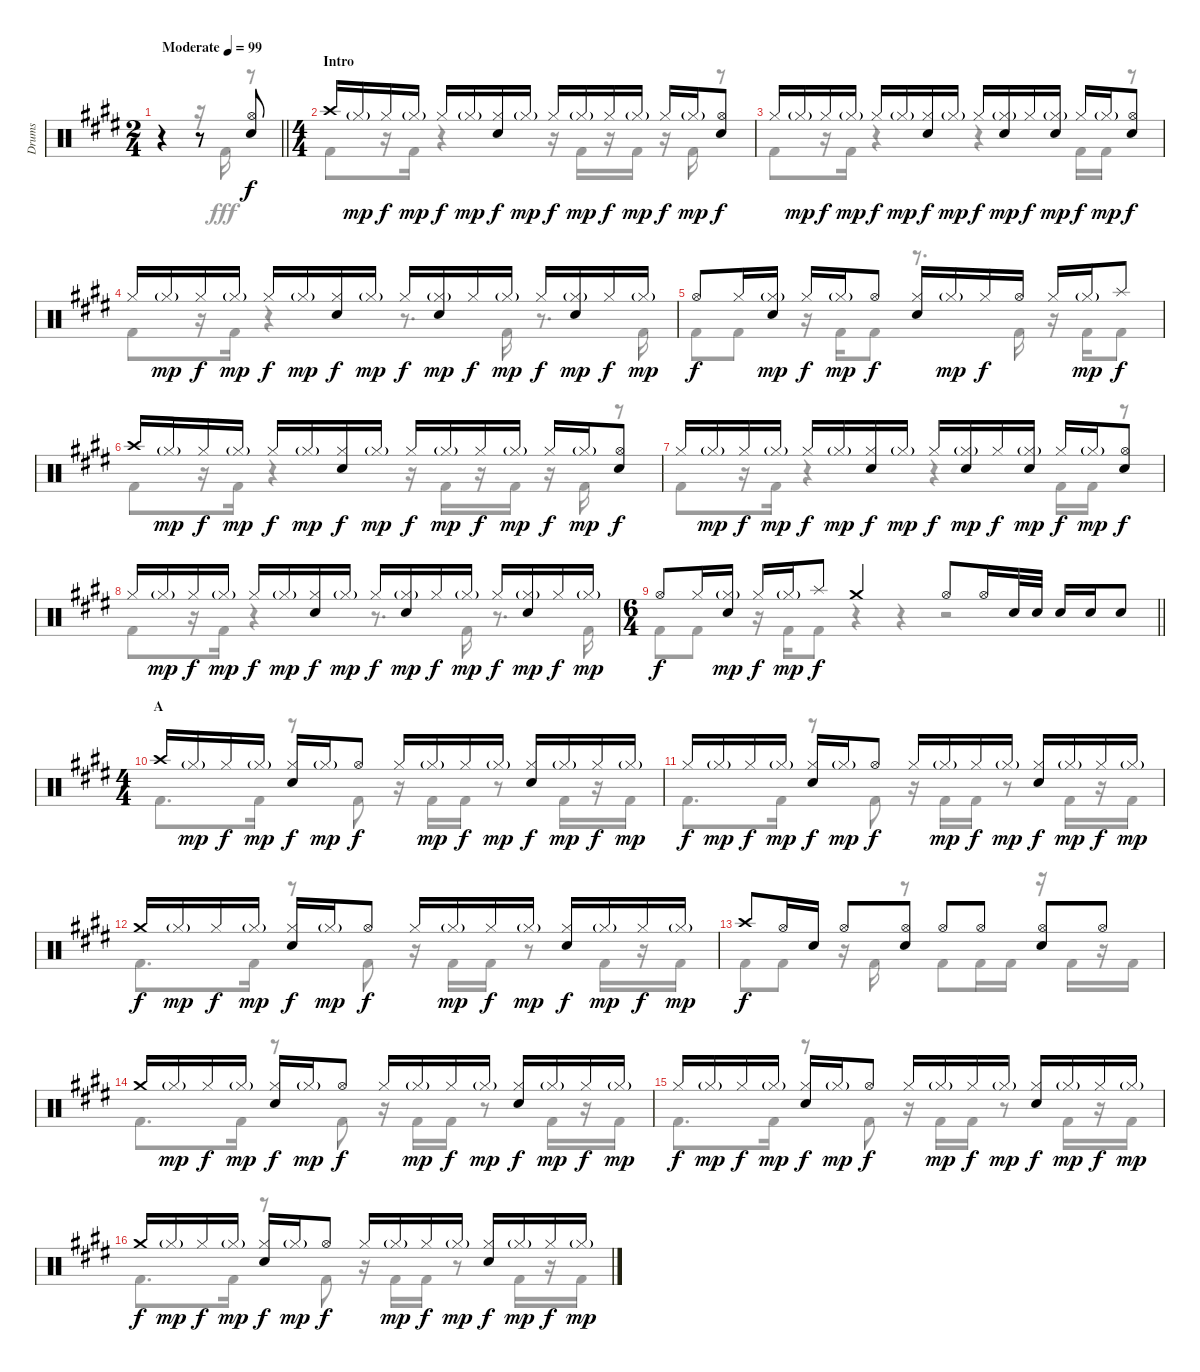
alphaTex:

\track ("Drums" "Drums") {instrument percussion}
\staff {score}
\articulation defaults
\voice
\ts (2 4)
\tempo (99 "Moderate")
\clef neutral
\barLineRight lightlight
\ks e
r.4{dy f} r.8 ("Hi-Hat (open)" "Snare (hit) 2").8 |
\ts (4 4)
\section ("" "Intro")
"Crash high (hit)".16 "Hi-Hat (closed)"{g}.16{dy mp} "Hi-Hat (closed)".16{dy f} "Hi-Hat (closed)"{g}.16{dy mp} "Hi-Hat (closed)".16{dy f} "Hi-Hat (closed)"{g}.16{dy mp} ("Hi-Hat (closed)" "Snare (hit) 2").16{dy f} "Hi-Hat (closed)"{g}.16{dy mp} "Hi-Hat (closed)".16{dy f} "Hi-Hat (closed)"{g}.16{dy mp} "Hi-Hat (closed)".16{dy f} "Hi-Hat (closed)"{g}.16{dy mp} "Hi-Hat (closed)".16{dy f} "Hi-Hat (closed)"{g}.16{dy mp} ("Hi-Hat (open)" "Snare (hit) 2").8{dy f} |
"Hi-Hat (closed)".16 "Hi-Hat (closed)"{g}.16{dy mp} "Hi-Hat (closed)".16{dy f} "Hi-Hat (closed)"{g}.16{dy mp} "Hi-Hat (closed)".16{dy f} "Hi-Hat (closed)"{g}.16{dy mp} ("Hi-Hat (closed)" "Snare (hit) 2").16{dy f} "Hi-Hat (closed)"{g}.16{dy mp} "Hi-Hat (closed)".16{dy f} ("Hi-Hat (closed)"{g} "Snare (hit) 2").16{dy mp} "Hi-Hat (closed)".16{dy f} ("Hi-Hat (closed)"{g} "Snare (hit) 2").16{dy mp} "Hi-Hat (closed)".16{dy f} "Hi-Hat (closed)"{g}.16{dy mp} ("Hi-Hat (open)" "Snare (hit) 2").8{dy f} |
"Hi-Hat (closed)".16 "Hi-Hat (closed)"{g}.16{dy mp} "Hi-Hat (closed)".16{dy f} "Hi-Hat (closed)"{g}.16{dy mp} "Hi-Hat (closed)".16{dy f} "Hi-Hat (closed)"{g}.16{dy mp} ("Hi-Hat (closed)" "Snare (hit) 2").16{dy f} "Hi-Hat (closed)"{g}.16{dy mp} "Hi-Hat (closed)".16{dy f} ("Hi-Hat (closed)"{g} "Snare (hit) 2").16{dy mp} "Hi-Hat (closed)".16{dy f} "Hi-Hat (closed)"{g}.16{dy mp} "Hi-Hat (closed)".16{dy f} ("Hi-Hat (closed)"{g} "Snare (hit) 2").16{dy mp} "Hi-Hat (closed)".16{dy f} "Hi-Hat (closed)"{g}.16{dy mp} |
"Hi-Hat (open)".8{dy f} "Hi-Hat (closed)".16 ("Hi-Hat (closed)"{g} "Snare (hit) 2").16{dy mp} "Hi-Hat (closed)".16{dy f} "Hi-Hat (closed)"{g}.16{dy mp} "Hi-Hat (open)".8{dy f} ("Hi-Hat (closed)" "Snare (hit) 2").16 "Hi-Hat (closed)"{g}.16{dy mp} "Hi-Hat (closed)".16{dy f} "Hi-Hat (open)".16 "Hi-Hat (closed)".16 "Hi-Hat (closed)"{g}.16{dy mp} "Splash (hit)".8{dy f} |
"Crash high (hit)".16 "Hi-Hat (closed)"{g}.16{dy mp} "Hi-Hat (closed)".16{dy f} "Hi-Hat (closed)"{g}.16{dy mp} "Hi-Hat (closed)".16{dy f} "Hi-Hat (closed)"{g}.16{dy mp} ("Hi-Hat (closed)" "Snare (hit) 2").16{dy f} "Hi-Hat (closed)"{g}.16{dy mp} "Hi-Hat (closed)".16{dy f} "Hi-Hat (closed)"{g}.16{dy mp} "Hi-Hat (closed)".16{dy f} "Hi-Hat (closed)"{g}.16{dy mp} "Hi-Hat (closed)".16{dy f} "Hi-Hat (closed)"{g}.16{dy mp} ("Hi-Hat (open)" "Snare (hit) 2").8{dy f} |
"Hi-Hat (closed)".16 "Hi-Hat (closed)"{g}.16{dy mp} "Hi-Hat (closed)".16{dy f} "Hi-Hat (closed)"{g}.16{dy mp} "Hi-Hat (closed)".16{dy f} "Hi-Hat (closed)"{g}.16{dy mp} ("Hi-Hat (closed)" "Snare (hit) 2").16{dy f} "Hi-Hat (closed)"{g}.16{dy mp} "Hi-Hat (closed)".16{dy f} ("Hi-Hat (closed)"{g} "Snare (hit) 2").16{dy mp} "Hi-Hat (closed)".16{dy f} ("Hi-Hat (closed)"{g} "Snare (hit) 2").16{dy mp} "Hi-Hat (closed)".16{dy f} "Hi-Hat (closed)"{g}.16{dy mp} ("Hi-Hat (open)" "Snare (hit) 2").8{dy f} |
"Hi-Hat (closed)".16 "Hi-Hat (closed)"{g}.16{dy mp} "Hi-Hat (closed)".16{dy f} "Hi-Hat (closed)"{g}.16{dy mp} "Hi-Hat (closed)".16{dy f} "Hi-Hat (closed)"{g}.16{dy mp} ("Hi-Hat (closed)" "Snare (hit) 2").16{dy f} "Hi-Hat (closed)"{g}.16{dy mp} "Hi-Hat (closed)".16{dy f} ("Hi-Hat (closed)"{g} "Snare (hit) 2").16{dy mp} "Hi-Hat (closed)".16{dy f} "Hi-Hat (closed)"{g}.16{dy mp} "Hi-Hat (closed)".16{dy f} ("Hi-Hat (closed)"{g} "Snare (hit) 2").16{dy mp} "Hi-Hat (closed)".16{dy f} "Hi-Hat (closed)"{g}.16{dy mp} |
\ts (6 4)
\barLineRight lightlight "Hi-Hat (open)".8{dy f} "Hi-Hat (closed)".16
("Hi-Hat (closed)"{g} "Snare (hit) 2").16{dy mp} "Hi-Hat (closed)".16{dy f} "Hi-Hat (closed)"{g}.16{dy mp} "Splash (hit)".8{dy f} "Crash medium (hit)".2 "Hi-Hat (open)".8 "Hi-Hat (open)".16 "Snare (hit) 2".32 "Snare (hit) 2".32 "Snare (hit) 2".16 "Snare (hit) 2".16 "Snare (hit) 2".8 |
\ts (4 4)
\section ("" "A")
"Crash high (hit)".16 "Hi-Hat (closed)"{g}.16{dy mp} "Hi-Hat (closed)".16{dy f} "Hi-Hat (closed)"{g}.16{dy mp} ("Hi-Hat (closed)" "Snare (hit) 2").16{dy f} "Hi-Hat (closed)"{g}.16{dy mp} "Hi-Hat (open)".8{dy f} "Hi-Hat (closed)".16 "Hi-Hat (closed)"{g}.16{dy mp} "Hi-Hat (closed)".16{dy f} "Hi-Hat (closed)"{g}.16{dy mp} ("Hi-Hat (closed)" "Snare (hit) 2").16{dy f} "Hi-Hat (closed)"{g}.16{dy mp} "Hi-Hat (closed)".16{dy f} "Hi-Hat (closed)"{g}.16{dy mp} |
"Hi-Hat (closed)".16{dy f} "Hi-Hat (closed)"{g}.16{dy mp} "Hi-Hat (closed)".16{dy f} "Hi-Hat (closed)"{g}.16{dy mp} ("Hi-Hat (closed)" "Snare (hit) 2").16{dy f} "Hi-Hat (closed)"{g}.16{dy mp} "Hi-Hat (open)".8{dy f} "Hi-Hat (closed)".16 "Hi-Hat (closed)"{g}.16{dy mp} "Hi-Hat (closed)".16{dy f} "Hi-Hat (closed)"{g}.16{dy mp} ("Hi-Hat (closed)" "Snare (hit) 2").16{dy f} "Hi-Hat (closed)"{g}.16{dy mp} "Hi-Hat (closed)".16{dy f} "Hi-Hat (closed)"{g}.16{dy mp} |
"Crash medium (hit)".16{dy f} "Hi-Hat (closed)"{g}.16{dy mp} "Hi-Hat (closed)".16{dy f} "Hi-Hat (closed)"{g}.16{dy mp} ("Hi-Hat (closed)" "Snare (hit) 2").16{dy f} "Hi-Hat (closed)"{g}.16{dy mp} "Hi-Hat (open)".8{dy f} "Hi-Hat (closed)".16 "Hi-Hat (closed)"{g}.16{dy mp} "Hi-Hat (closed)".16{dy f} "Hi-Hat (closed)"{g}.16{dy mp} ("Hi-Hat (closed)" "Snare (hit) 2").16{dy f} "Hi-Hat (closed)"{g}.16{dy mp} "Hi-Hat (closed)".16{dy f} "Hi-Hat (closed)"{g}.16{dy mp} |
"Crash high (hit)".8{dy f} "Hi-Hat (open)".16 "Snare (hit) 2".16 "Hi-Hat (open)".8 ("Hi-Hat (open)" "Snare (hit) 2").8 "Hi-Hat (open)".8 "Hi-Hat (open)".8 ("Hi-Hat (open)" "Snare (hit) 2").8 "Hi-Hat (open)".8 |
"Crash medium (hit)".16 "Hi-Hat (closed)"{g}.16{dy mp} "Hi-Hat (closed)".16{dy f} "Hi-Hat (closed)"{g}.16{dy mp} ("Hi-Hat (closed)" "Snare (hit) 2").16{dy f} "Hi-Hat (closed)"{g}.16{dy mp} "Hi-Hat (open)".8{dy f} "Hi-Hat (closed)".16 "Hi-Hat (closed)"{g}.16{dy mp} "Hi-Hat (closed)".16{dy f} "Hi-Hat (closed)"{g}.16{dy mp} ("Hi-Hat (closed)" "Snare (hit) 2").16{dy f} "Hi-Hat (closed)"{g}.16{dy mp} "Hi-Hat (closed)".16{dy f} "Hi-Hat (closed)"{g}.16{dy mp} |
"Hi-Hat (closed)".16{dy f} "Hi-Hat (closed)"{g}.16{dy mp} "Hi-Hat (closed)".16{dy f} "Hi-Hat (closed)"{g}.16{dy mp} ("Hi-Hat (closed)" "Snare (hit) 2").16{dy f} "Hi-Hat (closed)"{g}.16{dy mp} "Hi-Hat (open)".8{dy f} "Hi-Hat (closed)".16 "Hi-Hat (closed)"{g}.16{dy mp} "Hi-Hat (closed)".16{dy f} "Hi-Hat (closed)"{g}.16{dy mp} ("Hi-Hat (closed)" "Snare (hit) 2").16{dy f} "Hi-Hat (closed)"{g}.16{dy mp} "Hi-Hat (closed)".16{dy f} "Hi-Hat (closed)"{g}.16{dy mp} |
"Crash medium (hit)".16{dy f} "Hi-Hat (closed)"{g}.16{dy mp} "Hi-Hat (closed)".16{dy f} "Hi-Hat (closed)"{g}.16{dy mp} ("Hi-Hat (closed)" "Snare (hit) 2").16{dy f} "Hi-Hat (closed)"{g}.16{dy mp} "Hi-Hat (open)".8{dy f} "Hi-Hat (closed)".16 "Hi-Hat (closed)"{g}.16{dy mp} "Hi-Hat (closed)".16{dy f} "Hi-Hat (closed)"{g}.16{dy mp} ("Hi-Hat (closed)" "Snare (hit) 2").16{dy f} "Hi-Hat (closed)"{g}.16{dy mp} "Hi-Hat (closed)".16{dy f} "Hi-Hat (closed)"{g}.16{dy mp}
\voice
\clef neutral
\ottava regular
\simile none
\barLineRight lightlight
\ks e
r.4{dy fff} r.16 "Kick (hit) 2".16 r.8 |
"Kick (hit) 2".8 r.16 "Kick (hit) 2".16 r.4 r.16 "Kick (hit) 2".16 r.16 "Kick (hit) 2".16 r.16 "Kick (hit) 2".16 r.8 |
"Kick (hit) 2".8 r.16 "Kick (hit) 2".16 r.4 r.4 "Kick (hit) 2".16 "Kick (hit) 2".16 r.8 |
"Kick (hit) 2".8 r.16 "Kick (hit) 2".16 r.4 r.8{d} "Kick (hit) 2".16 r.8{d} "Kick (hit) 2".16 |
"Kick (hit) 2".8 "Kick (hit) 2".8 r.16 "Kick (hit) 2".16 "Kick (hit) 2".8 r.8{d} "Kick (hit) 2".16 r.16 "Kick (hit) 2".16 "Kick (hit) 2".8 |
"Kick (hit) 2".8 r.16 "Kick (hit) 2".16 r.4 r.16 "Kick (hit) 2".16 r.16 "Kick (hit) 2".16 r.16 "Kick (hit) 2".16 r.8 |
"Kick (hit) 2".8 r.16 "Kick (hit) 2".16 r.4 r.4 "Kick (hit) 2".16 "Kick (hit) 2".16 r.8 |
"Kick (hit) 2".8 r.16 "Kick (hit) 2".16 r.4 r.8{d} "Kick (hit) 2".16 r.8{d} "Kick (hit) 2".16 |
\barLineRight lightlight "Kick (hit) 2".8 "Kick (hit) 2".8
r.16 "Kick (hit) 2".16 "Kick (hit) 2".8 r.4 r.4 r.2 |
"Kick (hit) 2".8{d} "Kick (hit) 2".16 r.8 "Kick (hit) 2".8 r.16 "Kick (hit) 2".16 "Kick (hit) 2".16 r.8 "Kick (hit) 2".16 r.16 "Kick (hit) 2".16 |
"Kick (hit) 2".8{d} "Kick (hit) 2".16 r.8 "Kick (hit) 2".8 r.16 "Kick (hit) 2".16 "Kick (hit) 2".16 r.8 "Kick (hit) 2".16 r.16 "Kick (hit) 2".16 |
"Kick (hit) 2".8{d} "Kick (hit) 2".16 r.8 "Kick (hit) 2".8 r.16 "Kick (hit) 2".16 "Kick (hit) 2".16 r.8 "Kick (hit) 2".16 r.16 "Kick (hit) 2".16 |
"Kick (hit) 2".8 "Kick (hit) 2".8 r.16 "Kick (hit) 2".16 r.8 "Kick (hit) 2".8 "Kick (hit) 2".16 "Kick (hit) 2".16 r.16 "Kick (hit) 2".16 r.16 "Kick (hit) 2".16 |
"Kick (hit) 2".8{d} "Kick (hit) 2".16 r.8 "Kick (hit) 2".8 r.16 "Kick (hit) 2".16 "Kick (hit) 2".16 r.8 "Kick (hit) 2".16 r.16 "Kick (hit) 2".16 |
"Kick (hit) 2".8{d} "Kick (hit) 2".16 r.8 "Kick (hit) 2".8 r.16 "Kick (hit) 2".16 "Kick (hit) 2".16 r.8 "Kick (hit) 2".16 r.16 "Kick (hit) 2".16 |
"Kick (hit) 2".8{d} "Kick (hit) 2".16 r.8 "Kick (hit) 2".8 r.16 "Kick (hit) 2".16 "Kick (hit) 2".16 r.8 "Kick (hit) 2".16 r.16 "Kick (hit) 2".16
